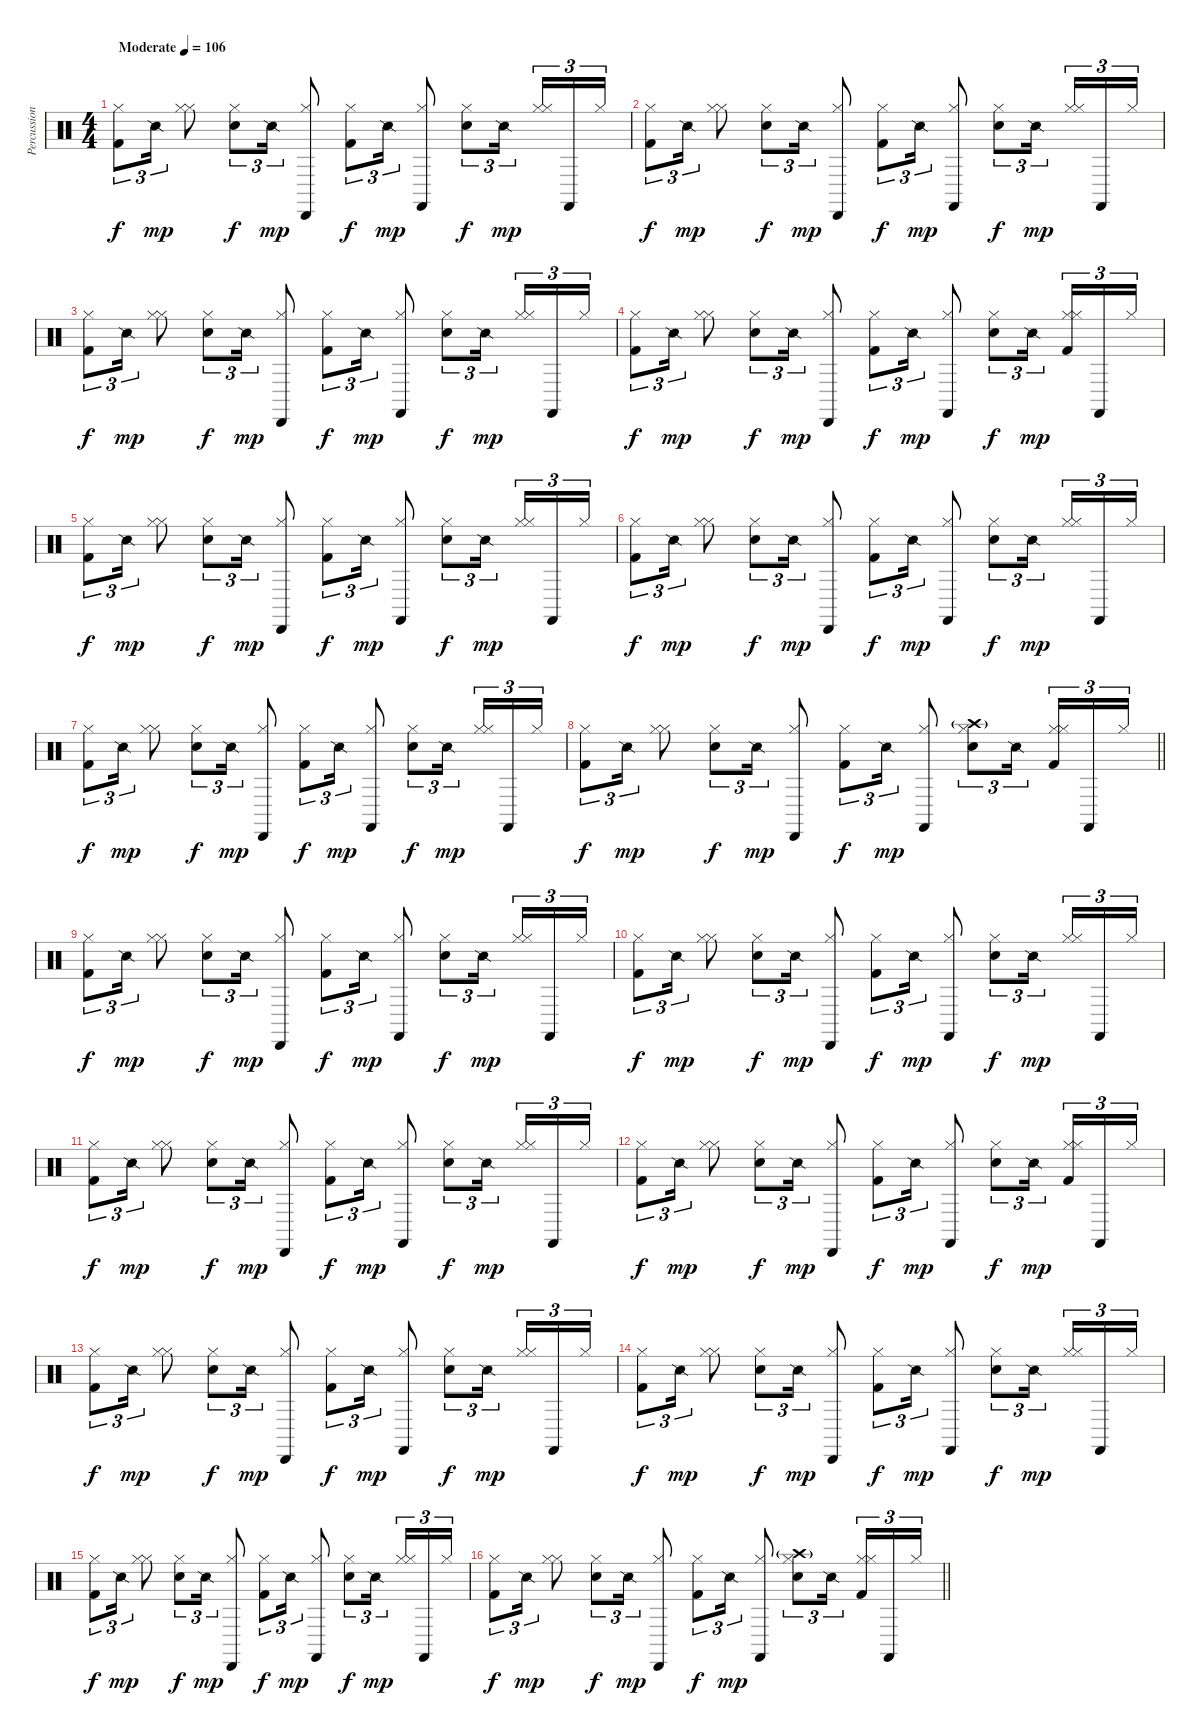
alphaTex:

\track ("Percussion" "Percussion") {instrument percussion}
\staff {score}
\articulation defaults
\ts (4 4)
\tempo (106 "Moderate")
\clef neutral
\ks c
("Hi-Hat (closed)" "Kick (hit) 2").8{tu (3 2) dy f} "Snare (side stick) 2".16{tu (3 2) dy mp} ("Hi-Hat (closed)" "Hi-Hat (closed)").8 ("Hi-Hat (closed)" "Electric Snare (hit)").8{tu (3 2) dy f} "Snare (side stick) 2".16{tu (3 2) dy mp} ("Hi-Hat (closed)" "Cabasa (hit)").8 ("Hi-Hat (closed)" "Kick (hit) 2").8{tu (3 2) dy f} "Snare (side stick) 2".16{tu (3 2) dy mp} ("Hi-Hat (closed)" "Castanets (hit)").8 ("Hi-Hat (closed)" "Electric Snare (hit)").8{tu (3 2) dy f} "Snare (side stick) 2".16{tu (3 2) dy mp beam splitsecondary} ("Hi-Hat (closed)" "Hi-Hat (closed)").16{tu (3 2)} "Castanets (hit)".16{tu (3 2)} "Hi-Hat (closed)".16{tu (3 2)} |
("Hi-Hat (closed)" "Kick (hit) 2").8{tu (3 2) dy f} "Snare (side stick) 2".16{tu (3 2) dy mp} ("Hi-Hat (closed)" "Hi-Hat (closed)").8 ("Hi-Hat (closed)" "Electric Snare (hit)").8{tu (3 2) dy f} "Snare (side stick) 2".16{tu (3 2) dy mp} ("Hi-Hat (closed)" "Cabasa (hit)").8 ("Hi-Hat (closed)" "Kick (hit) 2").8{tu (3 2) dy f} "Snare (side stick) 2".16{tu (3 2) dy mp} ("Hi-Hat (closed)" "Castanets (hit)").8 ("Hi-Hat (closed)" "Electric Snare (hit)").8{tu (3 2) dy f} "Snare (side stick) 2".16{tu (3 2) dy mp beam splitsecondary} ("Hi-Hat (closed)" "Hi-Hat (closed)").16{tu (3 2)} "Castanets (hit)".16{tu (3 2)} "Hi-Hat (closed)".16{tu (3 2)} |
("Hi-Hat (closed)" "Kick (hit) 2").8{tu (3 2) dy f} "Snare (side stick) 2".16{tu (3 2) dy mp} ("Hi-Hat (closed)" "Hi-Hat (closed)").8 ("Hi-Hat (closed)" "Electric Snare (hit)").8{tu (3 2) dy f} "Snare (side stick) 2".16{tu (3 2) dy mp} ("Hi-Hat (closed)" "Cabasa (hit)").8 ("Hi-Hat (closed)" "Kick (hit) 2").8{tu (3 2) dy f} "Snare (side stick) 2".16{tu (3 2) dy mp} ("Hi-Hat (closed)" "Castanets (hit)").8 ("Hi-Hat (closed)" "Electric Snare (hit)").8{tu (3 2) dy f} "Snare (side stick) 2".16{tu (3 2) dy mp beam splitsecondary} ("Hi-Hat (closed)" "Hi-Hat (closed)").16{tu (3 2)} "Castanets (hit)".16{tu (3 2)} "Hi-Hat (closed)".16{tu (3 2)} |
("Hi-Hat (closed)" "Kick (hit) 2").8{tu (3 2) dy f} "Snare (side stick) 2".16{tu (3 2) dy mp} ("Hi-Hat (closed)" "Hi-Hat (closed)").8 ("Hi-Hat (closed)" "Electric Snare (hit)").8{tu (3 2) dy f} "Snare (side stick) 2".16{tu (3 2) dy mp} ("Hi-Hat (closed)" "Cabasa (hit)").8 ("Hi-Hat (closed)" "Kick (hit) 2").8{tu (3 2) dy f} "Snare (side stick) 2".16{tu (3 2) dy mp} ("Hi-Hat (closed)" "Castanets (hit)").8 ("Hi-Hat (closed)" "Electric Snare (hit)").8{tu (3 2) dy f} "Snare (side stick) 2".16{tu (3 2) dy mp beam splitsecondary} ("Hi-Hat (closed)" "Hi-Hat (closed)" "Kick (hit) 2").16{tu (3 2)} "Castanets (hit)".16{tu (3 2)} "Hi-Hat (closed)".16{tu (3 2)} |
("Hi-Hat (closed)" "Kick (hit) 2").8{tu (3 2) dy f} "Snare (side stick) 2".16{tu (3 2) dy mp} ("Hi-Hat (closed)" "Hi-Hat (closed)").8 ("Hi-Hat (closed)" "Electric Snare (hit)").8{tu (3 2) dy f} "Snare (side stick) 2".16{tu (3 2) dy mp} ("Hi-Hat (closed)" "Cabasa (hit)").8 ("Hi-Hat (closed)" "Kick (hit) 2").8{tu (3 2) dy f} "Snare (side stick) 2".16{tu (3 2) dy mp} ("Hi-Hat (closed)" "Castanets (hit)").8 ("Hi-Hat (closed)" "Electric Snare (hit)").8{tu (3 2) dy f} "Snare (side stick) 2".16{tu (3 2) dy mp beam splitsecondary} ("Hi-Hat (closed)" "Hi-Hat (closed)").16{tu (3 2)} "Castanets (hit)".16{tu (3 2)} "Hi-Hat (closed)".16{tu (3 2)} |
("Hi-Hat (closed)" "Kick (hit) 2").8{tu (3 2) dy f} "Snare (side stick) 2".16{tu (3 2) dy mp} ("Hi-Hat (closed)" "Hi-Hat (closed)").8 ("Hi-Hat (closed)" "Electric Snare (hit)").8{tu (3 2) dy f} "Snare (side stick) 2".16{tu (3 2) dy mp} ("Hi-Hat (closed)" "Cabasa (hit)").8 ("Hi-Hat (closed)" "Kick (hit) 2").8{tu (3 2) dy f} "Snare (side stick) 2".16{tu (3 2) dy mp} ("Hi-Hat (closed)" "Castanets (hit)").8 ("Hi-Hat (closed)" "Electric Snare (hit)").8{tu (3 2) dy f} "Snare (side stick) 2".16{tu (3 2) dy mp beam splitsecondary} ("Hi-Hat (closed)" "Hi-Hat (closed)").16{tu (3 2)} "Castanets (hit)".16{tu (3 2)} "Hi-Hat (closed)".16{tu (3 2)} |
("Hi-Hat (closed)" "Kick (hit) 2").8{tu (3 2) dy f} "Snare (side stick) 2".16{tu (3 2) dy mp} ("Hi-Hat (closed)" "Hi-Hat (closed)").8 ("Hi-Hat (closed)" "Electric Snare (hit)").8{tu (3 2) dy f} "Snare (side stick) 2".16{tu (3 2) dy mp} ("Hi-Hat (closed)" "Cabasa (hit)").8 ("Hi-Hat (closed)" "Kick (hit) 2").8{tu (3 2) dy f} "Snare (side stick) 2".16{tu (3 2) dy mp} ("Hi-Hat (closed)" "Castanets (hit)").8 ("Hi-Hat (closed)" "Electric Snare (hit)").8{tu (3 2) dy f} "Snare (side stick) 2".16{tu (3 2) dy mp beam splitsecondary} ("Hi-Hat (closed)" "Hi-Hat (closed)").16{tu (3 2)} "Castanets (hit)".16{tu (3 2)} "Hi-Hat (closed)".16{tu (3 2)} |
\barLineRight lightlight
("Hi-Hat (closed)" "Kick (hit) 2").8{tu (3 2) dy f} "Snare (side stick) 2".16{tu (3 2) dy mp} ("Hi-Hat (closed)" "Hi-Hat (closed)").8 ("Hi-Hat (closed)" "Electric Snare (hit)").8{tu (3 2) dy f} "Snare (side stick) 2".16{tu (3 2) dy mp} ("Hi-Hat (closed)" "Cabasa (hit)").8 ("Hi-Hat (closed)" "Kick (hit) 2").8{tu (3 2) dy f} "Snare (side stick) 2".16{tu (3 2) dy mp} ("Hi-Hat (closed)" "Castanets (hit)").8 ("Crash high (hit)"{g} "Hi-Hat (closed)" "Electric Snare (hit)").8{tu (3 2)} "Snare (side stick) 2".16{tu (3 2) beam splitsecondary} ("Hi-Hat (closed)" "Hi-Hat (closed)" "Kick (hit) 2").16{tu (3 2)} "Castanets (hit)".16{tu (3 2)} "Hi-Hat (closed)".16{tu (3 2)} |
\section ("" "")
("Hi-Hat (closed)" "Kick (hit) 2").8{tu (3 2) dy f} "Snare (side stick) 2".16{tu (3 2) dy mp} ("Hi-Hat (closed)" "Hi-Hat (closed)").8 ("Hi-Hat (closed)" "Electric Snare (hit)").8{tu (3 2) dy f} "Snare (side stick) 2".16{tu (3 2) dy mp} ("Hi-Hat (closed)" "Cabasa (hit)").8 ("Hi-Hat (closed)" "Kick (hit) 2").8{tu (3 2) dy f} "Snare (side stick) 2".16{tu (3 2) dy mp} ("Hi-Hat (closed)" "Castanets (hit)").8 ("Hi-Hat (closed)" "Electric Snare (hit)").8{tu (3 2) dy f} "Snare (side stick) 2".16{tu (3 2) dy mp beam splitsecondary} ("Hi-Hat (closed)" "Hi-Hat (closed)").16{tu (3 2)} "Castanets (hit)".16{tu (3 2)} "Hi-Hat (closed)".16{tu (3 2)} |
("Hi-Hat (closed)" "Kick (hit) 2").8{tu (3 2) dy f} "Snare (side stick) 2".16{tu (3 2) dy mp} ("Hi-Hat (closed)" "Hi-Hat (closed)").8 ("Hi-Hat (closed)" "Electric Snare (hit)").8{tu (3 2) dy f} "Snare (side stick) 2".16{tu (3 2) dy mp} ("Hi-Hat (closed)" "Cabasa (hit)").8 ("Hi-Hat (closed)" "Kick (hit) 2").8{tu (3 2) dy f} "Snare (side stick) 2".16{tu (3 2) dy mp} ("Hi-Hat (closed)" "Castanets (hit)").8 ("Hi-Hat (closed)" "Electric Snare (hit)").8{tu (3 2) dy f} "Snare (side stick) 2".16{tu (3 2) dy mp beam splitsecondary} ("Hi-Hat (closed)" "Hi-Hat (closed)").16{tu (3 2)} "Castanets (hit)".16{tu (3 2)} "Hi-Hat (closed)".16{tu (3 2)} |
("Hi-Hat (closed)" "Kick (hit) 2").8{tu (3 2) dy f} "Snare (side stick) 2".16{tu (3 2) dy mp} ("Hi-Hat (closed)" "Hi-Hat (closed)").8 ("Hi-Hat (closed)" "Electric Snare (hit)").8{tu (3 2) dy f} "Snare (side stick) 2".16{tu (3 2) dy mp} ("Hi-Hat (closed)" "Cabasa (hit)").8 ("Hi-Hat (closed)" "Kick (hit) 2").8{tu (3 2) dy f} "Snare (side stick) 2".16{tu (3 2) dy mp} ("Hi-Hat (closed)" "Castanets (hit)").8 ("Hi-Hat (closed)" "Electric Snare (hit)").8{tu (3 2) dy f} "Snare (side stick) 2".16{tu (3 2) dy mp beam splitsecondary} ("Hi-Hat (closed)" "Hi-Hat (closed)").16{tu (3 2)} "Castanets (hit)".16{tu (3 2)} "Hi-Hat (closed)".16{tu (3 2)} |
("Hi-Hat (closed)" "Kick (hit) 2").8{tu (3 2) dy f} "Snare (side stick) 2".16{tu (3 2) dy mp} ("Hi-Hat (closed)" "Hi-Hat (closed)").8 ("Hi-Hat (closed)" "Electric Snare (hit)").8{tu (3 2) dy f} "Snare (side stick) 2".16{tu (3 2) dy mp} ("Hi-Hat (closed)" "Cabasa (hit)").8 ("Hi-Hat (closed)" "Kick (hit) 2").8{tu (3 2) dy f} "Snare (side stick) 2".16{tu (3 2) dy mp} ("Hi-Hat (closed)" "Castanets (hit)").8 ("Hi-Hat (closed)" "Electric Snare (hit)").8{tu (3 2) dy f} "Snare (side stick) 2".16{tu (3 2) dy mp beam splitsecondary} ("Hi-Hat (closed)" "Hi-Hat (closed)" "Kick (hit) 2").16{tu (3 2)} "Castanets (hit)".16{tu (3 2)} "Hi-Hat (closed)".16{tu (3 2)} |
("Hi-Hat (closed)" "Kick (hit) 2").8{tu (3 2) dy f} "Snare (side stick) 2".16{tu (3 2) dy mp} ("Hi-Hat (closed)" "Hi-Hat (closed)").8 ("Hi-Hat (closed)" "Electric Snare (hit)").8{tu (3 2) dy f} "Snare (side stick) 2".16{tu (3 2) dy mp} ("Hi-Hat (closed)" "Cabasa (hit)").8 ("Hi-Hat (closed)" "Kick (hit) 2").8{tu (3 2) dy f} "Snare (side stick) 2".16{tu (3 2) dy mp} ("Hi-Hat (closed)" "Castanets (hit)").8 ("Hi-Hat (closed)" "Electric Snare (hit)").8{tu (3 2) dy f} "Snare (side stick) 2".16{tu (3 2) dy mp beam splitsecondary} ("Hi-Hat (closed)" "Hi-Hat (closed)").16{tu (3 2)} "Castanets (hit)".16{tu (3 2)} "Hi-Hat (closed)".16{tu (3 2)} |
("Hi-Hat (closed)" "Kick (hit) 2").8{tu (3 2) dy f} "Snare (side stick) 2".16{tu (3 2) dy mp} ("Hi-Hat (closed)" "Hi-Hat (closed)").8 ("Hi-Hat (closed)" "Electric Snare (hit)").8{tu (3 2) dy f} "Snare (side stick) 2".16{tu (3 2) dy mp} ("Hi-Hat (closed)" "Cabasa (hit)").8 ("Hi-Hat (closed)" "Kick (hit) 2").8{tu (3 2) dy f} "Snare (side stick) 2".16{tu (3 2) dy mp} ("Hi-Hat (closed)" "Castanets (hit)").8 ("Hi-Hat (closed)" "Electric Snare (hit)").8{tu (3 2) dy f} "Snare (side stick) 2".16{tu (3 2) dy mp beam splitsecondary} ("Hi-Hat (closed)" "Hi-Hat (closed)").16{tu (3 2)} "Castanets (hit)".16{tu (3 2)} "Hi-Hat (closed)".16{tu (3 2)} |
("Hi-Hat (closed)" "Kick (hit) 2").8{tu (3 2) dy f} "Snare (side stick) 2".16{tu (3 2) dy mp} ("Hi-Hat (closed)" "Hi-Hat (closed)").8 ("Hi-Hat (closed)" "Electric Snare (hit)").8{tu (3 2) dy f} "Snare (side stick) 2".16{tu (3 2) dy mp} ("Hi-Hat (closed)" "Cabasa (hit)").8 ("Hi-Hat (closed)" "Kick (hit) 2").8{tu (3 2) dy f} "Snare (side stick) 2".16{tu (3 2) dy mp} ("Hi-Hat (closed)" "Castanets (hit)").8 ("Hi-Hat (closed)" "Electric Snare (hit)").8{tu (3 2) dy f} "Snare (side stick) 2".16{tu (3 2) dy mp beam splitsecondary} ("Hi-Hat (closed)" "Hi-Hat (closed)").16{tu (3 2)} "Castanets (hit)".16{tu (3 2)} "Hi-Hat (closed)".16{tu (3 2)} |
\barLineRight lightlight
("Hi-Hat (closed)" "Kick (hit) 2").8{tu (3 2) dy f} "Snare (side stick) 2".16{tu (3 2) dy mp} ("Hi-Hat (closed)" "Hi-Hat (closed)").8 ("Hi-Hat (closed)" "Electric Snare (hit)").8{tu (3 2) dy f} "Snare (side stick) 2".16{tu (3 2) dy mp} ("Hi-Hat (closed)" "Cabasa (hit)").8 ("Hi-Hat (closed)" "Kick (hit) 2").8{tu (3 2) dy f} "Snare (side stick) 2".16{tu (3 2) dy mp} ("Hi-Hat (closed)" "Castanets (hit)").8 ("Crash high (hit)"{g} "Hi-Hat (closed)" "Electric Snare (hit)").8{tu (3 2)} "Snare (side stick) 2".16{tu (3 2) beam splitsecondary} ("Hi-Hat (closed)" "Hi-Hat (closed)" "Kick (hit) 2").16{tu (3 2)} "Castanets (hit)".16{tu (3 2)} "Hi-Hat (closed)".16{tu (3 2)}
